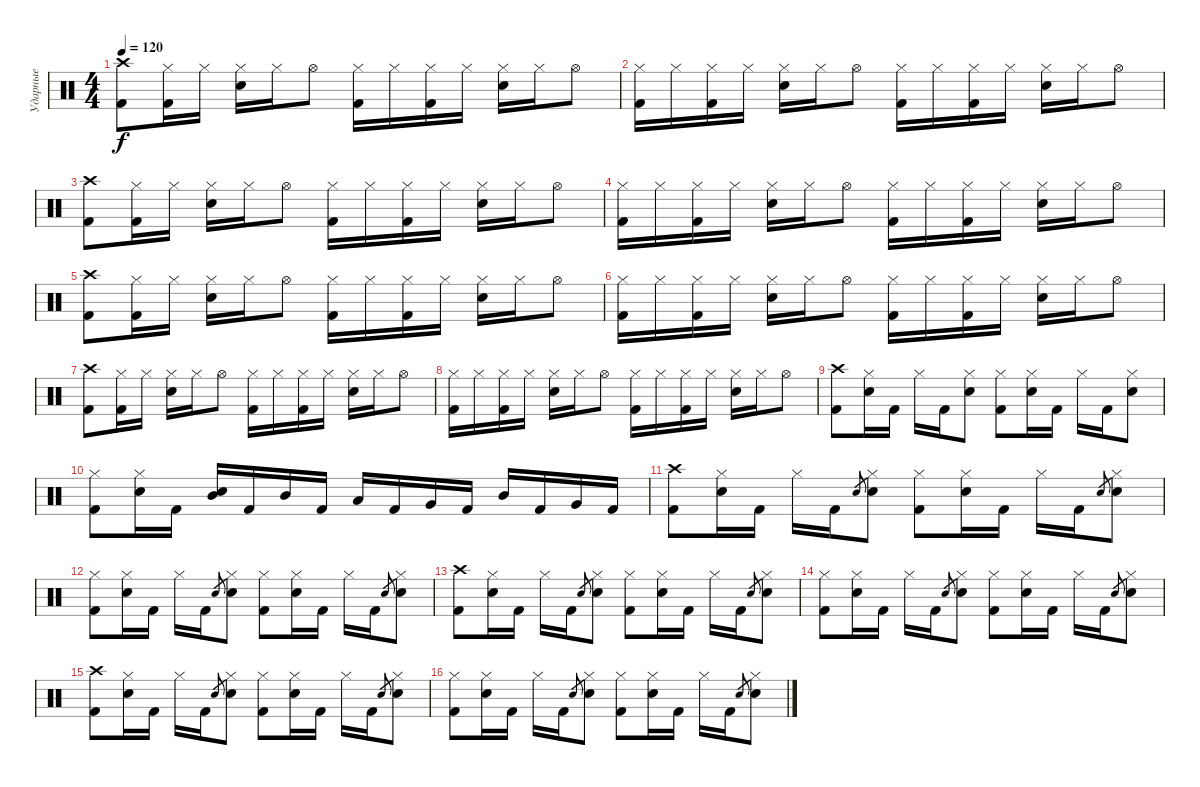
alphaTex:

\track ("Ударные" "Ударные") {instrument percussion}
\staff {score}
\articulation defaults
\ts (4 4)
\tempo 120
\clef neutral
\ks c
("Kick (hit) 2" "Crash high (hit)").8{dy f} ("Kick (hit) 2" "Hi-Hat (closed)").16 "Hi-Hat (closed)".16 ("Electric Snare (hit)" "Hi-Hat (closed)").16 "Hi-Hat (closed)".16 "Hi-Hat (open)".8 ("Kick (hit) 2" "Hi-Hat (closed)").16 "Hi-Hat (closed)".16 ("Kick (hit) 2" "Hi-Hat (closed)").16 "Hi-Hat (closed)".16 ("Electric Snare (hit)" "Hi-Hat (closed)").16 "Hi-Hat (closed)".16 "Hi-Hat (open)".8 |
("Kick (hit) 2" "Hi-Hat (closed)").16 "Hi-Hat (closed)".16 ("Kick (hit) 2" "Hi-Hat (closed)").16 "Hi-Hat (closed)".16 ("Electric Snare (hit)" "Hi-Hat (closed)").16 "Hi-Hat (closed)".16 "Hi-Hat (open)".8 ("Kick (hit) 2" "Hi-Hat (closed)").16 "Hi-Hat (closed)".16 ("Kick (hit) 2" "Hi-Hat (closed)").16 "Hi-Hat (closed)".16 ("Electric Snare (hit)" "Hi-Hat (closed)").16 "Hi-Hat (closed)".16 "Hi-Hat (open)".8 |
("Kick (hit) 2" "Crash high (hit)").8 ("Kick (hit) 2" "Hi-Hat (closed)").16 "Hi-Hat (closed)".16 ("Electric Snare (hit)" "Hi-Hat (closed)").16 "Hi-Hat (closed)".16 "Hi-Hat (open)".8 ("Kick (hit) 2" "Hi-Hat (closed)").16 "Hi-Hat (closed)".16 ("Kick (hit) 2" "Hi-Hat (closed)").16 "Hi-Hat (closed)".16 ("Electric Snare (hit)" "Hi-Hat (closed)").16 "Hi-Hat (closed)".16 "Hi-Hat (open)".8 |
("Kick (hit) 2" "Hi-Hat (closed)").16 "Hi-Hat (closed)".16 ("Kick (hit) 2" "Hi-Hat (closed)").16 "Hi-Hat (closed)".16 ("Electric Snare (hit)" "Hi-Hat (closed)").16 "Hi-Hat (closed)".16 "Hi-Hat (open)".8 ("Kick (hit) 2" "Hi-Hat (closed)").16 "Hi-Hat (closed)".16 ("Kick (hit) 2" "Hi-Hat (closed)").16 "Hi-Hat (closed)".16 ("Electric Snare (hit)" "Hi-Hat (closed)").16 "Hi-Hat (closed)".16 "Hi-Hat (open)".8 |
("Kick (hit) 2" "Crash high (hit)").8 ("Kick (hit) 2" "Hi-Hat (closed)").16 "Hi-Hat (closed)".16 ("Electric Snare (hit)" "Hi-Hat (closed)").16 "Hi-Hat (closed)".16 "Hi-Hat (open)".8 ("Kick (hit) 2" "Hi-Hat (closed)").16 "Hi-Hat (closed)".16 ("Kick (hit) 2" "Hi-Hat (closed)").16 "Hi-Hat (closed)".16 ("Electric Snare (hit)" "Hi-Hat (closed)").16 "Hi-Hat (closed)".16 "Hi-Hat (open)".8 |
("Kick (hit) 2" "Hi-Hat (closed)").16 "Hi-Hat (closed)".16 ("Kick (hit) 2" "Hi-Hat (closed)").16 "Hi-Hat (closed)".16 ("Electric Snare (hit)" "Hi-Hat (closed)").16 "Hi-Hat (closed)".16 "Hi-Hat (open)".8 ("Kick (hit) 2" "Hi-Hat (closed)").16 "Hi-Hat (closed)".16 ("Kick (hit) 2" "Hi-Hat (closed)").16 "Hi-Hat (closed)".16 ("Electric Snare (hit)" "Hi-Hat (closed)").16 "Hi-Hat (closed)".16 "Hi-Hat (open)".8 |
("Kick (hit) 2" "Crash high (hit)").8 ("Kick (hit) 2" "Hi-Hat (closed)").16 "Hi-Hat (closed)".16 ("Electric Snare (hit)" "Hi-Hat (closed)").16 "Hi-Hat (closed)".16 "Hi-Hat (open)".8 ("Kick (hit) 2" "Hi-Hat (closed)").16 "Hi-Hat (closed)".16 ("Kick (hit) 2" "Hi-Hat (closed)").16 "Hi-Hat (closed)".16 ("Electric Snare (hit)" "Hi-Hat (closed)").16 "Hi-Hat (closed)".16 "Hi-Hat (open)".8 |
("Kick (hit) 2" "Hi-Hat (closed)").16 "Hi-Hat (closed)".16 ("Kick (hit) 2" "Hi-Hat (closed)").16 "Hi-Hat (closed)".16 ("Electric Snare (hit)" "Hi-Hat (closed)").16 "Hi-Hat (closed)".16 "Hi-Hat (open)".8 ("Kick (hit) 2" "Hi-Hat (closed)").16 "Hi-Hat (closed)".16 ("Kick (hit) 2" "Hi-Hat (closed)").16 "Hi-Hat (closed)".16 ("Electric Snare (hit)" "Hi-Hat (closed)").16 "Hi-Hat (closed)".16 "Hi-Hat (open)".8 |
("Kick (hit) 2" "Crash high (hit)").8 ("Electric Snare (hit)" "Hi-Hat (closed)").16 "Kick (hit) 2".16 "Hi-Hat (closed)".16 "Kick (hit) 2".16 ("Electric Snare (hit)" "Hi-Hat (closed)").8 ("Kick (hit) 2" "Hi-Hat (closed)").8 ("Electric Snare (hit)" "Hi-Hat (closed)").16 "Kick (hit) 2".16 "Hi-Hat (closed)".16 "Kick (hit) 2".16 ("Electric Snare (hit)" "Hi-Hat (closed)").8 |
("Kick (hit) 2" "Hi-Hat (closed)").8 ("Electric Snare (hit)" "Hi-Hat (closed)").16 "Kick (hit) 2".16 ("Electric Snare (hit)" "Mid Tom (hit)").16 "Kick (hit) 2".16 "Mid Tom (hit)".16 "Kick (hit) 2".16 "Low Tom (hit)".16 "Kick (hit) 2".16 "Very Low Tom (hit)".16 "Kick (hit) 2".16 "Mid Tom (hit)".16 "Kick (hit) 2".16 "Very Low Tom (hit)".16 "Kick (hit) 2".16 |
("Kick (hit) 2" "Crash high (hit)").8 ("Electric Snare (hit)" "Hi-Hat (closed)").16 "Kick (hit) 2".16 "Hi-Hat (closed)".16 "Kick (hit) 2".16 "Electric Snare (hit)".8{gr} ("Electric Snare (hit)" "Hi-Hat (closed)").8 ("Kick (hit) 2" "Hi-Hat (closed)").8 ("Electric Snare (hit)" "Hi-Hat (closed)").16 "Kick (hit) 2".16 "Hi-Hat (closed)".16 "Kick (hit) 2".16 "Electric Snare (hit)".8{gr} ("Electric Snare (hit)" "Hi-Hat (closed)").8 |
("Kick (hit) 2" "Hi-Hat (closed)").8 ("Electric Snare (hit)" "Hi-Hat (closed)").16 "Kick (hit) 2".16 "Hi-Hat (closed)".16 "Kick (hit) 2".16 "Electric Snare (hit)".8{gr} ("Electric Snare (hit)" "Hi-Hat (closed)").8 ("Kick (hit) 2" "Hi-Hat (closed)").8 ("Electric Snare (hit)" "Hi-Hat (closed)").16 "Kick (hit) 2".16 "Hi-Hat (closed)".16 "Kick (hit) 2".16 "Electric Snare (hit)".8{gr} ("Electric Snare (hit)" "Hi-Hat (closed)").8 |
("Kick (hit) 2" "Crash high (hit)").8 ("Electric Snare (hit)" "Hi-Hat (closed)").16 "Kick (hit) 2".16 "Hi-Hat (closed)".16 "Kick (hit) 2".16 "Electric Snare (hit)".8{gr} ("Electric Snare (hit)" "Hi-Hat (closed)").8 ("Kick (hit) 2" "Hi-Hat (closed)").8 ("Electric Snare (hit)" "Hi-Hat (closed)").16 "Kick (hit) 2".16 "Hi-Hat (closed)".16 "Kick (hit) 2".16 "Electric Snare (hit)".8{gr} ("Electric Snare (hit)" "Hi-Hat (closed)").8 |
("Kick (hit) 2" "Hi-Hat (closed)").8 ("Electric Snare (hit)" "Hi-Hat (closed)").16 "Kick (hit) 2".16 "Hi-Hat (closed)".16 "Kick (hit) 2".16 "Electric Snare (hit)".8{gr} ("Electric Snare (hit)" "Hi-Hat (closed)").8 ("Kick (hit) 2" "Hi-Hat (closed)").8 ("Electric Snare (hit)" "Hi-Hat (closed)").16 "Kick (hit) 2".16 "Hi-Hat (closed)".16 "Kick (hit) 2".16 "Electric Snare (hit)".8{gr} ("Electric Snare (hit)" "Hi-Hat (closed)").8 |
("Kick (hit) 2" "Crash high (hit)").8 ("Electric Snare (hit)" "Hi-Hat (closed)").16 "Kick (hit) 2".16 "Hi-Hat (closed)".16 "Kick (hit) 2".16 "Electric Snare (hit)".8{gr} ("Electric Snare (hit)" "Hi-Hat (closed)").8 ("Kick (hit) 2" "Hi-Hat (closed)").8 ("Electric Snare (hit)" "Hi-Hat (closed)").16 "Kick (hit) 2".16 "Hi-Hat (closed)".16 "Kick (hit) 2".16 "Electric Snare (hit)".8{gr} ("Electric Snare (hit)" "Hi-Hat (closed)").8 |
("Kick (hit) 2" "Hi-Hat (closed)").8 ("Electric Snare (hit)" "Hi-Hat (closed)").16 "Kick (hit) 2".16 "Hi-Hat (closed)".16 "Kick (hit) 2".16 "Electric Snare (hit)".8{gr} ("Electric Snare (hit)" "Hi-Hat (closed)").8 ("Kick (hit) 2" "Hi-Hat (closed)").8 ("Electric Snare (hit)" "Hi-Hat (closed)").16 "Kick (hit) 2".16 "Hi-Hat (closed)".16 "Kick (hit) 2".16 "Electric Snare (hit)".8{gr} ("Electric Snare (hit)" "Hi-Hat (closed)").8
